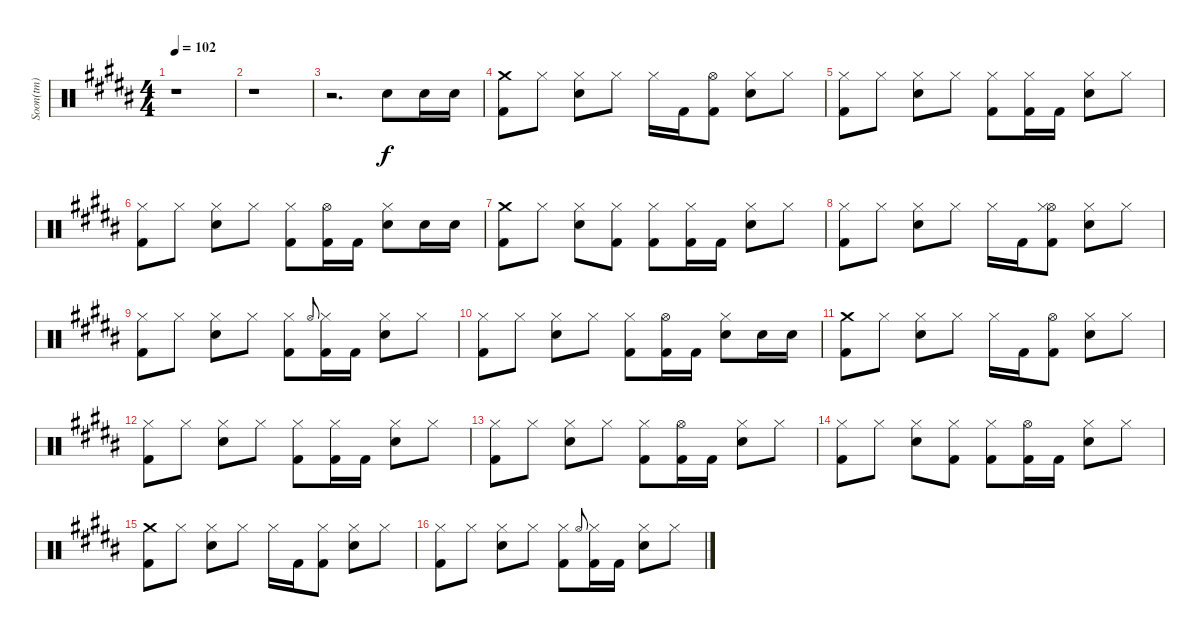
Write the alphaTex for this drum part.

\track ("Soon(tm)" "Soon(tm)") {instrument percussion}
\staff {score}
\articulation defaults
\ts (4 4)
\tempo 102
\clef neutral
\ks g#minor
r.1{dy f} |
r.1 |
r.2{d} "Snare (hit) 2".8 "Snare (hit) 2".16 "Snare (hit) 2".16 |
("Crash medium (hit)" "Kick (hit) 2").8 "Hi-Hat (closed)".8 ("Snare (hit) 2" "Hi-Hat (closed)").8 "Hi-Hat (closed)".8 "Hi-Hat (closed)".16 "Kick (hit) 2".16 ("Hi-Hat (open)" "Kick (hit) 2").8 ("Snare (hit) 2" "Hi-Hat (closed)").8 "Hi-Hat (closed)".8 |
("Hi-Hat (closed)" "Kick (hit) 2").8 "Hi-Hat (closed)".8 ("Snare (hit) 2" "Hi-Hat (closed)").8 "Hi-Hat (closed)".8 ("Hi-Hat (closed)" "Kick (hit) 2").8 ("Hi-Hat (closed)" "Kick (hit) 2").16 "Kick (hit) 2".16 ("Snare (hit) 2" "Hi-Hat (closed)").8 "Hi-Hat (closed)".8 |
("Hi-Hat (closed)" "Kick (hit) 2").8 "Hi-Hat (closed)".8 ("Snare (hit) 2" "Hi-Hat (closed)").8 "Hi-Hat (closed)".8 ("Hi-Hat (closed)" "Kick (hit) 2").8 ("Hi-Hat (open)" "Kick (hit) 2").16 "Kick (hit) 2".16 ("Snare (hit) 2" "Hi-Hat (closed)").8 "Snare (hit) 2".16 "Snare (hit) 2".16 |
("Crash medium (hit)" "Kick (hit) 2").8 "Hi-Hat (closed)".8 ("Snare (hit) 2" "Hi-Hat (closed)").8 ("Hi-Hat (closed)" "Kick (hit) 2").8 ("Hi-Hat (closed)" "Kick (hit) 2").8 ("Hi-Hat (closed)" "Kick (hit) 2").16 "Kick (hit) 2".16 ("Snare (hit) 2" "Hi-Hat (closed)").8 "Hi-Hat (closed)".8 |
("Hi-Hat (closed)" "Kick (hit) 2").8 "Hi-Hat (closed)".8 ("Snare (hit) 2" "Hi-Hat (closed)").8 "Hi-Hat (closed)".8 "Hi-Hat (closed)".16 "Kick (hit) 2".16 ("Hi-Hat (open)" "Hi-Hat (closed)" "Kick (hit) 2").8 ("Snare (hit) 2" "Hi-Hat (closed)").8 "Hi-Hat (closed)".8 |
("Hi-Hat (closed)" "Kick (hit) 2").8 "Hi-Hat (closed)".8 ("Snare (hit) 2" "Hi-Hat (closed)").8 "Hi-Hat (closed)".8 ("Hi-Hat (closed)" "Kick (hit) 2").8 "Hi-Hat (open)".8{gr onbeat} ("Hi-Hat (closed)" "Kick (hit) 2").16 "Kick (hit) 2".16 ("Snare (hit) 2" "Hi-Hat (closed)").8 "Hi-Hat (closed)".8 |
("Hi-Hat (closed)" "Kick (hit) 2").8 "Hi-Hat (closed)".8 ("Snare (hit) 2" "Hi-Hat (closed)").8 "Hi-Hat (closed)".8 ("Hi-Hat (closed)" "Kick (hit) 2").8 ("Hi-Hat (open)" "Kick (hit) 2").16 "Kick (hit) 2".16 ("Snare (hit) 2" "Hi-Hat (closed)").8 "Snare (hit) 2".16 "Snare (hit) 2".16 |
("Crash medium (hit)" "Kick (hit) 2").8 "Hi-Hat (closed)".8 ("Snare (hit) 2" "Hi-Hat (closed)").8 "Hi-Hat (closed)".8 "Hi-Hat (closed)".16 "Kick (hit) 2".16 ("Hi-Hat (open)" "Kick (hit) 2").8 ("Snare (hit) 2" "Hi-Hat (closed)").8 "Hi-Hat (closed)".8 |
("Hi-Hat (closed)" "Kick (hit) 2").8 "Hi-Hat (closed)".8 ("Snare (hit) 2" "Hi-Hat (closed)").8 "Hi-Hat (closed)".8 ("Hi-Hat (closed)" "Kick (hit) 2").8 ("Hi-Hat (closed)" "Kick (hit) 2").16 "Kick (hit) 2".16 ("Snare (hit) 2" "Hi-Hat (closed)").8 "Hi-Hat (closed)".8 |
("Hi-Hat (closed)" "Kick (hit) 2").8 "Hi-Hat (closed)".8 ("Snare (hit) 2" "Hi-Hat (closed)").8 "Hi-Hat (closed)".8 ("Hi-Hat (closed)" "Kick (hit) 2").8 ("Hi-Hat (open)" "Kick (hit) 2").16 "Kick (hit) 2".16 ("Snare (hit) 2" "Hi-Hat (closed)").8 "Hi-Hat (closed)".8 |
("Hi-Hat (closed)" "Kick (hit) 2").8 "Hi-Hat (closed)".8 ("Snare (hit) 2" "Hi-Hat (closed)").8 ("Hi-Hat (closed)" "Kick (hit) 2").8 ("Hi-Hat (closed)" "Kick (hit) 2").8 ("Hi-Hat (open)" "Kick (hit) 2").16 "Kick (hit) 2".16 ("Snare (hit) 2" "Hi-Hat (closed)").8 "Hi-Hat (closed)".8 |
("Crash medium (hit)" "Kick (hit) 2").8 "Hi-Hat (closed)".8 ("Snare (hit) 2" "Hi-Hat (closed)").8 "Hi-Hat (closed)".8 "Hi-Hat (closed)".16 "Kick (hit) 2".16 ("Hi-Hat (closed)" "Kick (hit) 2").8 ("Snare (hit) 2" "Hi-Hat (closed)").8 "Hi-Hat (closed)".8 |
("Hi-Hat (closed)" "Kick (hit) 2").8 "Hi-Hat (closed)".8 ("Snare (hit) 2" "Hi-Hat (closed)").8 "Hi-Hat (closed)".8 ("Hi-Hat (closed)" "Kick (hit) 2").8 "Hi-Hat (open)".8{gr onbeat} ("Hi-Hat (closed)" "Kick (hit) 2").16 "Kick (hit) 2".16 ("Snare (hit) 2" "Hi-Hat (closed)").8 "Hi-Hat (closed)".8
